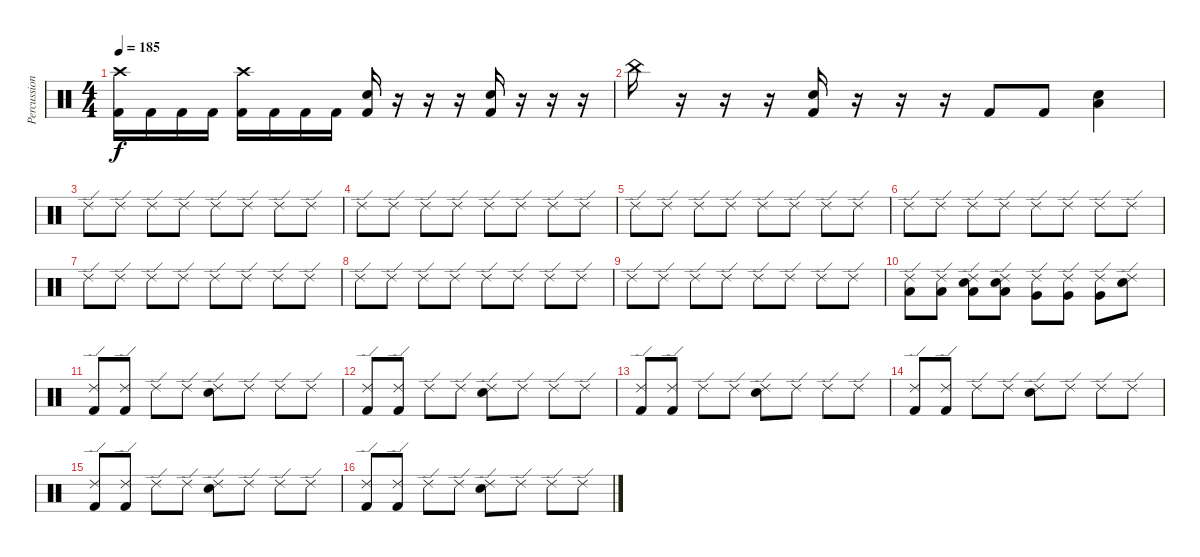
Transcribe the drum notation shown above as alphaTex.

\track ("Percussion" "Percussion") {instrument percussion}
\staff {score}
\articulation defaults
\ts (4 4)
\tempo 185
\clef neutral
\ks c
("Crash high (hit)" "Kick (hit) 2").16{dy f} "Kick (hit) 2".16 "Kick (hit) 2".16 "Kick (hit) 2".16 ("Crash high (hit)" "Kick (hit) 2").16 "Kick (hit) 2".16 "Kick (hit) 2".16 "Kick (hit) 2".16 ("Snare (hit) 2" "Kick (hit) 2").16 r.16 r.16 r.16 ("Snare (hit) 2" "Kick (hit) 2").16 r.16 r.16 r.16 |
"China (hit)".16 r.16 r.16 r.16 ("Snare (hit) 2" "Kick (hit) 2").16 r.16 r.16 r.16 "Kick (hit) 2".8 "Kick (hit) 2".8 ("Snare (hit) 2" "Low Tom (hit)").4 |
"Ride (edge) 2".8 "Ride (edge) 2".8 "Ride (edge) 2".8 "Ride (edge) 2".8 "Ride (edge) 2".8 "Ride (edge) 2".8 "Ride (edge) 2".8 "Ride (edge) 2".8 |
"Ride (edge) 2".8 "Ride (edge) 2".8 "Ride (edge) 2".8 "Ride (edge) 2".8 "Ride (edge) 2".8 "Ride (edge) 2".8 "Ride (edge) 2".8 "Ride (edge) 2".8 |
"Ride (edge) 2".8 "Ride (edge) 2".8 "Ride (edge) 2".8 "Ride (edge) 2".8 "Ride (edge) 2".8 "Ride (edge) 2".8 "Ride (edge) 2".8 "Ride (edge) 2".8 |
"Ride (edge) 2".8 "Ride (edge) 2".8 "Ride (edge) 2".8 "Ride (edge) 2".8 "Ride (edge) 2".8 "Ride (edge) 2".8 "Ride (edge) 2".8 "Ride (edge) 2".8 |
"Ride (edge) 2".8 "Ride (edge) 2".8 "Ride (edge) 2".8 "Ride (edge) 2".8 "Ride (edge) 2".8 "Ride (edge) 2".8 "Ride (edge) 2".8 "Ride (edge) 2".8 |
"Ride (edge) 2".8 "Ride (edge) 2".8 "Ride (edge) 2".8 "Ride (edge) 2".8 "Ride (edge) 2".8 "Ride (edge) 2".8 "Ride (edge) 2".8 "Ride (edge) 2".8 |
"Ride (edge) 2".8 "Ride (edge) 2".8 "Ride (edge) 2".8 "Ride (edge) 2".8 "Ride (edge) 2".8 "Ride (edge) 2".8 "Ride (edge) 2".8 "Ride (edge) 2".8 |
("Ride (edge) 2" "Low Floor Tom (hit)").8 ("Ride (edge) 2" "Low Floor Tom (hit)").8 ("Ride (edge) 2" "Low Floor Tom (hit)" "Electric Snare (hit)").8 ("Ride (edge) 2" "Low Floor Tom (hit)" "Electric Snare (hit)").8 ("Ride (edge) 2" "Very Low Tom (hit)").8 ("Ride (edge) 2" "Very Low Tom (hit)").8 ("Ride (edge) 2" "Very Low Tom (hit)").8 ("Ride (edge) 2" "Electric Snare (hit)").8 |
("Ride (edge) 2" "Kick (hit) 2").8 ("Ride (edge) 2" "Kick (hit) 2").8 "Ride (edge) 2".8 "Ride (edge) 2".8 ("Ride (edge) 2" "Electric Snare (hit)").8 "Ride (edge) 2".8 "Ride (edge) 2".8 "Ride (edge) 2".8 |
("Ride (edge) 2" "Kick (hit) 2").8 ("Ride (edge) 2" "Kick (hit) 2").8 "Ride (edge) 2".8 "Ride (edge) 2".8 ("Ride (edge) 2" "Electric Snare (hit)").8 "Ride (edge) 2".8 "Ride (edge) 2".8 "Ride (edge) 2".8 |
("Ride (edge) 2" "Kick (hit) 2").8 ("Ride (edge) 2" "Kick (hit) 2").8 "Ride (edge) 2".8 "Ride (edge) 2".8 ("Ride (edge) 2" "Electric Snare (hit)").8 "Ride (edge) 2".8 "Ride (edge) 2".8 "Ride (edge) 2".8 |
("Ride (edge) 2" "Kick (hit) 2").8 ("Ride (edge) 2" "Kick (hit) 2").8 "Ride (edge) 2".8 "Ride (edge) 2".8 ("Ride (edge) 2" "Electric Snare (hit)").8 "Ride (edge) 2".8 "Ride (edge) 2".8 "Ride (edge) 2".8 |
("Ride (edge) 2" "Kick (hit) 2").8 ("Ride (edge) 2" "Kick (hit) 2").8 "Ride (edge) 2".8 "Ride (edge) 2".8 ("Ride (edge) 2" "Electric Snare (hit)").8 "Ride (edge) 2".8 "Ride (edge) 2".8 "Ride (edge) 2".8 |
("Ride (edge) 2" "Kick (hit) 2").8 ("Ride (edge) 2" "Kick (hit) 2").8 "Ride (edge) 2".8 "Ride (edge) 2".8 ("Ride (edge) 2" "Electric Snare (hit)").8 "Ride (edge) 2".8 "Ride (edge) 2".8 "Ride (edge) 2".8
